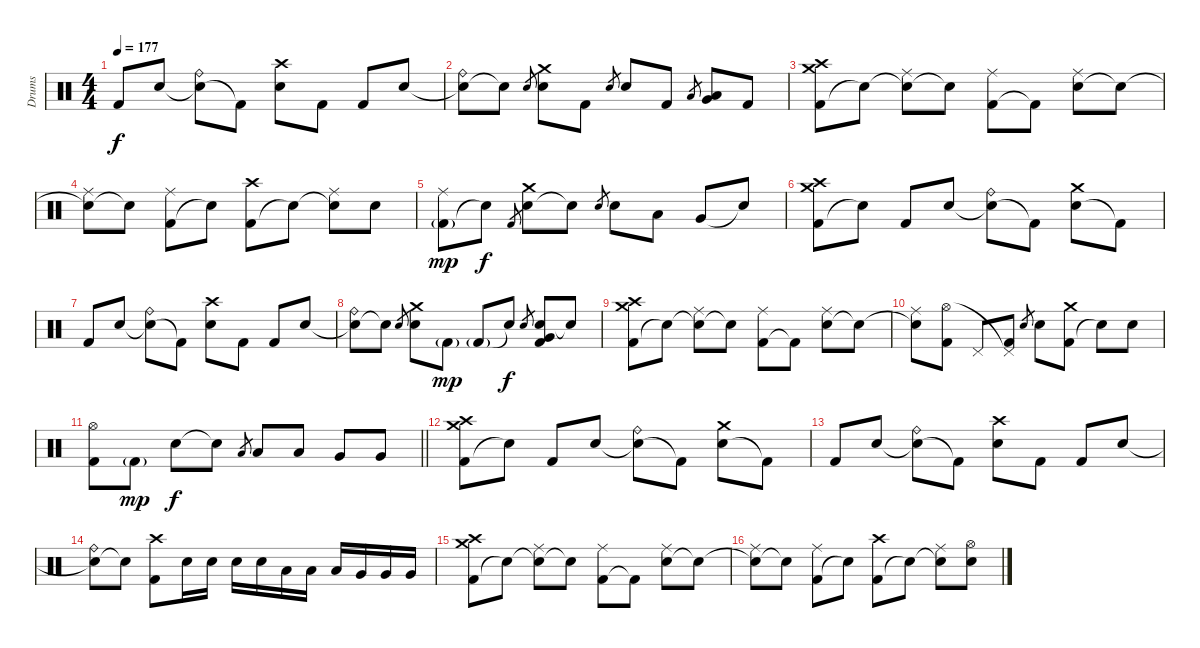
\track ("Drums" "Drums") {instrument percussion}
\staff {score}
\articulation defaults
\ts (4 4)
\tempo 177
\clef neutral
\ks c "Kick (hit) 2".8{dy f} "Electric Snare (hit)".8
("Snare (hit)"{t} "Ride (bell)").8 "Kick (hit) 2"{t}.8 ("Electric Snare (hit)" "Crash high (hit)").8 "Kick (hit) 2".8 "Kick (hit) 2".8 "Electric Snare (hit)".8 |
("Snare (hit)"{t} "Ride (bell)").8 "Snare (hit)"{t}.8 "Electric Snare (hit)".8{gr} ("Electric Snare (hit)" "Crash medium (hit)").8 "Kick (hit) 2".8 "Electric Snare (hit)".8{gr} "Electric Snare (hit)".8 "Kick (hit) 2".8 "Low Tom (hit)".8{gr} ("Low Tom (hit)" "Very Low Tom (hit)").8 "Kick (hit) 2".8 |
("Kick (hit) 2" "Crash medium (hit)" "Crash high (hit)").8 "Snare (hit)"{t}.8 ("Snare (hit)"{t} "Ride (middle)").8 "Snare (hit)"{t}.8 ("Kick (hit) 2" "Ride (middle)").8 "Kick (hit) 2"{t}.8 ("Electric Snare (hit)" "Ride (middle)").8 "Snare (hit)"{t}.8 |
("Electric Snare (hit)"{t} "Ride (middle)").8 "Snare (hit)"{t}.8 ("Kick (hit) 2" "Ride (middle)").8 "Snare (hit)"{t}.8 ("Kick (hit) 2" "Crash high (hit)").8 "Snare (hit)"{t}.8 ("Snare (hit)"{t} "Ride (middle)").8 "Electric Snare (hit)".8 |
("Kick (hit) 2"{g} "Ride (middle)").8{dy mp} "Snare (hit)"{t}.8{dy f} "Kick (hit) 2".8{gr} ("Electric Snare (hit)" "Crash medium (hit)").8 "Snare (hit)"{t}.8 "Electric Snare (hit)".8{gr} "Electric Snare (hit)".8 "Low Tom (hit)".8 "Very Low Tom (hit)".8 "Snare (hit)"{t}.8 |
("Kick (hit) 2" "Crash medium (hit)" "Crash high (hit)").8 "Snare (hit)"{t}.8 "Kick (hit) 2".8 "Electric Snare (hit)".8 ("Snare (hit)"{t} "Ride (bell)").8 "Kick (hit) 2"{t}.8 ("Electric Snare (hit)" "Crash medium (hit)").8 "Kick (hit) 2"{t}.8 |
"Kick (hit) 2".8 "Electric Snare (hit)".8 ("Snare (hit)"{t} "Ride (bell)").8 "Kick (hit) 2"{t}.8 ("Electric Snare (hit)" "Crash high (hit)").8 "Kick (hit) 2".8 "Kick (hit) 2".8 "Electric Snare (hit)".8 |
("Snare (hit)"{t} "Ride (bell)").8 "Snare (hit)"{t}.8 "Electric Snare (hit)".8{gr} ("Electric Snare (hit)" "Crash medium (hit)").8 "Kick (hit) 2"{g}.8{dy mp} "Kick (hit) 2"{g}.8 "Snare (hit)"{t}.8{dy f} "Electric Snare (hit)".8{gr} ("Electric Snare (hit)" "Very Low Tom (hit)" "Kick (hit) 2").8 "Snare (hit)"{t}.8 |
("Kick (hit) 2" "Crash medium (hit)" "Crash high (hit)").8 "Snare (hit)"{t}.8 ("Snare (hit)"{t} "Ride (middle)").8 "Snare (hit)"{t}.8 ("Kick (hit) 2" "Ride (middle)").8 "Kick (hit) 2"{t}.8 ("Electric Snare (hit)" "Ride (middle)").8 "Snare (hit)"{t}.8 |
("Electric Snare (hit)"{t} "Ride (middle)").8 ("Kick (hit) 2" "Hi-Hat (open)").8 "Pedal Hi-Hat (hit)".8 ("Kick (hit) 2" "Pedal Hi-Hat (hit)"{t}).8 "Electric Snare (hit)".8{gr} "Electric Snare (hit)".8 ("Kick (hit) 2" "Crash medium (hit)").8 "Snare (hit)"{t}.8 "Electric Snare (hit)".8 |
\barLineRight lightlight
("Kick (hit) 2" "Hi-Hat (open)").8 "Kick (hit) 2"{g}.8{dy mp} "Electric Snare (hit)".8{dy f} "Electric Snare (hit)"{t}.8 "Low Tom (hit)".8{gr} "Low Tom (hit)".8 "Low Tom (hit)".8 "Very Low Tom (hit)".8 "Very Low Tom (hit)".8 |
("Kick (hit) 2" "Crash medium (hit)" "Crash high (hit)").8 "Snare (hit)"{t}.8 "Kick (hit) 2".8 "Electric Snare (hit)".8 ("Snare (hit)"{t} "Ride (bell)").8 "Kick (hit) 2"{t}.8 ("Electric Snare (hit)" "Crash medium (hit)").8 "Kick (hit) 2"{t}.8 |
"Kick (hit) 2".8 "Electric Snare (hit)".8 ("Snare (hit)"{t} "Ride (bell)").8 "Kick (hit) 2"{t}.8 ("Electric Snare (hit)" "Crash high (hit)").8 "Kick (hit) 2".8 "Kick (hit) 2".8 "Electric Snare (hit)".8 |
("Snare (hit)"{t} "Ride (bell)").8 "Snare (hit)"{t}.8 ("Kick (hit) 2" "Crash high (hit)").8 "Electric Snare (hit)".16 "Electric Snare (hit)".16 "Electric Snare (hit)".16 "Electric Snare (hit)".16 "Low Tom (hit)".16 "Low Tom (hit)".16 "Low Tom (hit)".16 "Very Low Tom (hit)".16 "Very Low Tom (hit)".16 "Very Low Tom (hit)".16 |
("Kick (hit) 2" "Crash medium (hit)" "Crash high (hit)").8 "Snare (hit)"{t}.8 ("Snare (hit)"{t} "Ride (middle)").8 "Snare (hit)"{t}.8 ("Kick (hit) 2" "Ride (middle)").8 "Kick (hit) 2"{t}.8 ("Electric Snare (hit)" "Ride (middle)").8 "Snare (hit)"{t}.8 |
("Electric Snare (hit)"{t} "Ride (middle)").8 "Snare (hit)"{t}.8 ("Kick (hit) 2" "Ride (middle)").8 "Snare (hit)"{t}.8 ("Kick (hit) 2" "Crash high (hit)").8 "Snare (hit)"{t}.8 ("Snare (hit)"{t} "Ride (middle)").8 ("Electric Snare (hit)" "Hi-Hat (open)").8
